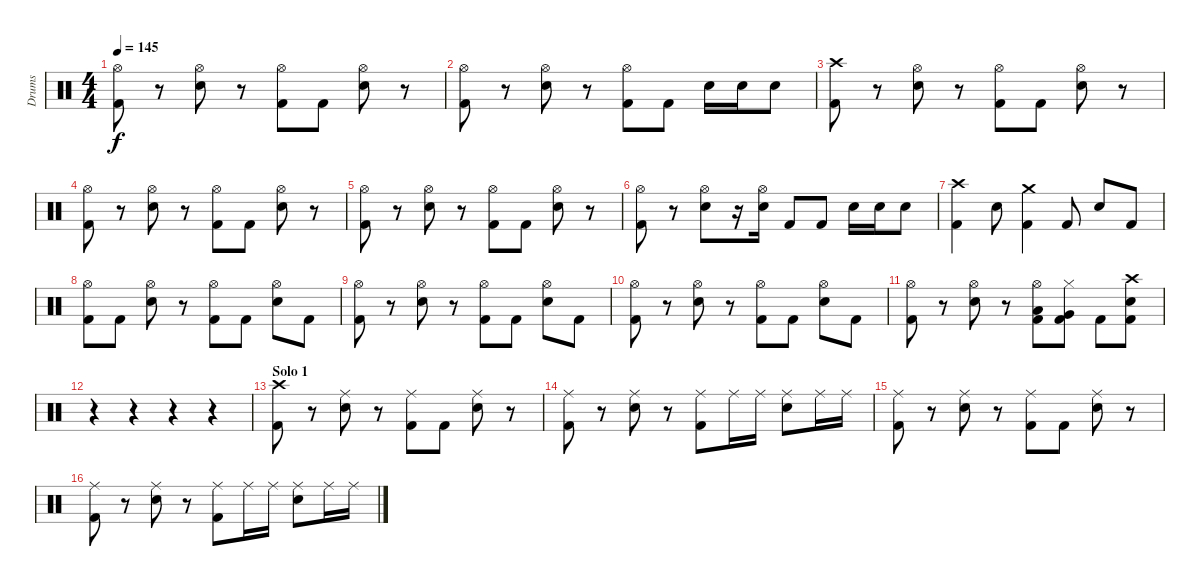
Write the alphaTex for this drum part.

\track ("Drums" "Drums") {instrument percussion}
\staff {score}
\articulation defaults
\ts (4 4)
\tempo 145
\clef neutral
\ks c
("Hi-Hat (open)" "Kick (hit) 2").8{dy f} r.8 ("Hi-Hat (open)" "Snare (hit) 2").8 r.8 ("Hi-Hat (open)" "Kick (hit) 2").8 "Kick (hit) 2".8 ("Hi-Hat (open)" "Snare (hit) 2").8 r.8 |
("Hi-Hat (open)" "Kick (hit) 2").8 r.8 ("Hi-Hat (open)" "Snare (hit) 2").8 r.8 ("Hi-Hat (open)" "Kick (hit) 2").8 "Kick (hit) 2".8 "Snare (hit) 2".16 "Snare (hit) 2".16 "Snare (hit) 2".8 |
("Crash high (hit)" "Kick (hit) 2").8 r.8 ("Hi-Hat (open)" "Snare (hit) 2").8 r.8 ("Hi-Hat (open)" "Kick (hit) 2").8 "Kick (hit) 2".8 ("Hi-Hat (open)" "Snare (hit) 2").8 r.8 |
("Hi-Hat (open)" "Kick (hit) 2").8 r.8 ("Hi-Hat (open)" "Snare (hit) 2").8 r.8 ("Hi-Hat (open)" "Kick (hit) 2").8 "Kick (hit) 2".8 ("Hi-Hat (open)" "Snare (hit) 2").8 r.8 |
("Hi-Hat (open)" "Kick (hit) 2").8 r.8 ("Hi-Hat (open)" "Snare (hit) 2").8 r.8 ("Hi-Hat (open)" "Kick (hit) 2").8 "Kick (hit) 2".8 ("Hi-Hat (open)" "Snare (hit) 2").8 r.8 |
("Hi-Hat (open)" "Kick (hit) 2").8 r.8 ("Hi-Hat (open)" "Snare (hit) 2").8 r.16 ("Hi-Hat (open)" "Snare (hit) 2").16 "Kick (hit) 2".8 "Kick (hit) 2".8 "Snare (hit) 2".16 "Snare (hit) 2".16 "Snare (hit) 2".8 |
\section ("" "")
("Crash high (hit)" "Kick (hit) 2").4 "Snare (hit) 2".8 ("Crash medium (hit)" "Kick (hit) 2").4 "Kick (hit) 2".8 "Snare (hit) 2".8 "Kick (hit) 2".8 |
("Hi-Hat (open)" "Kick (hit) 2").8 "Kick (hit) 2".8 ("Hi-Hat (open)" "Snare (hit) 2").8 r.8 ("Hi-Hat (open)" "Kick (hit) 2").8 "Kick (hit) 2".8 ("Hi-Hat (open)" "Snare (hit) 2").8 "Kick (hit) 2".8 |
("Hi-Hat (open)" "Kick (hit) 2").8 r.8 ("Hi-Hat (open)" "Snare (hit) 2").8 r.8 ("Hi-Hat (open)" "Kick (hit) 2").8 "Kick (hit) 2".8 ("Hi-Hat (open)" "Snare (hit) 2").8 "Kick (hit) 2".8 |
("Hi-Hat (open)" "Kick (hit) 2").8 r.8 ("Hi-Hat (open)" "Snare (hit) 2").8 r.8 ("Hi-Hat (open)" "Kick (hit) 2").8 "Kick (hit) 2".8 ("Hi-Hat (open)" "Snare (hit) 2").8 "Kick (hit) 2".8 |
("Hi-Hat (open)" "Kick (hit) 2").8 r.8 ("Hi-Hat (open)" "Snare (hit) 2").8 r.8 ("Hi-Hat (open)" "Low Floor Tom (hit)" "Kick (hit) 2").8 ("Hi-Hat (closed)" "Very Low Tom (hit)" "Kick (hit) 2").8 "Kick (hit) 2".8 ("Crash high (hit)" "Snare (hit) 2" "Kick (hit) 2").8 |
r.4 r.4 r.4 r.4 |
\section ("" "Solo 1")
("Crash high (hit)" "Kick (hit) 2").8 r.8 ("Ride (middle)" "Snare (hit) 2").8 r.8 ("Ride (middle)" "Kick (hit) 2").8 "Kick (hit) 2".8 ("Ride (middle)" "Snare (hit) 2").8 r.8 |
("Ride (middle)" "Kick (hit) 2").8 r.8 ("Ride (middle)" "Snare (hit) 2").8 r.8 ("Ride (middle)" "Kick (hit) 2").8 "Ride (middle)".16 "Ride (middle)".16 ("Ride (middle)" "Snare (hit) 2").8 "Ride (middle)".16 "Ride (middle)".16 |
("Ride (middle)" "Kick (hit) 2").8 r.8 ("Ride (middle)" "Snare (hit) 2").8 r.8 ("Ride (middle)" "Kick (hit) 2").8 "Kick (hit) 2".8 ("Ride (middle)" "Snare (hit) 2").8 r.8 |
("Ride (middle)" "Kick (hit) 2").8 r.8 ("Ride (middle)" "Snare (hit) 2").8 r.8 ("Ride (middle)" "Kick (hit) 2").8 "Ride (middle)".16 "Ride (middle)".16 ("Ride (middle)" "Snare (hit) 2").8 "Ride (middle)".16 "Ride (middle)".16
